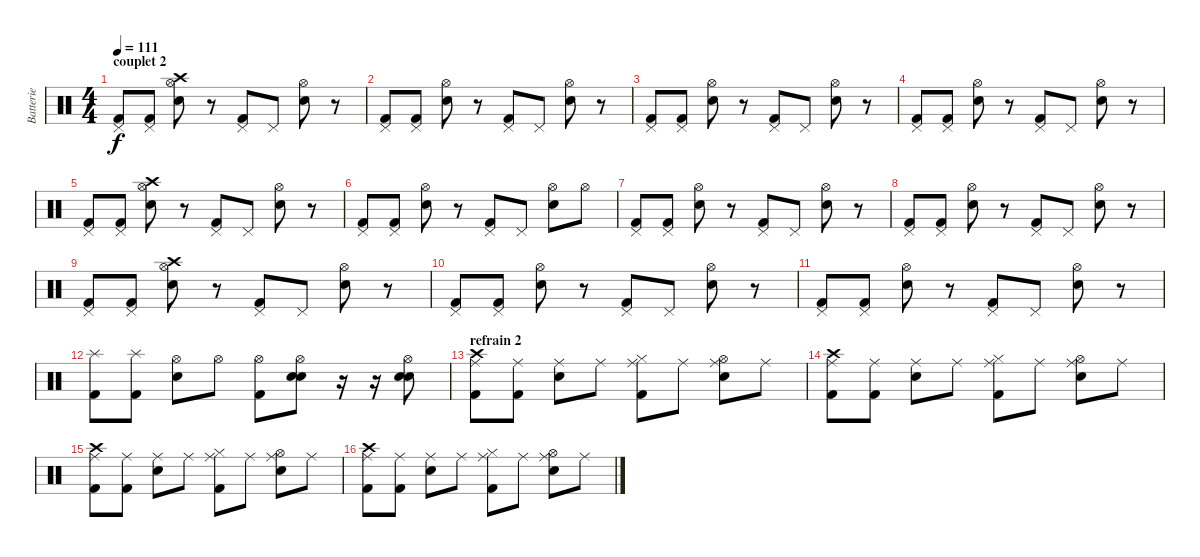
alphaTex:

\track ("Batterie" "Batterie") {instrument percussion}
\staff {score}
\articulation defaults
\ts (4 4)
\section ("" "couplet 2")
\tempo 111
\clef neutral
\ks c
("Pedal Hi-Hat (hit)" "Kick (hit) 2").8{dy f} ("Pedal Hi-Hat (hit)" "Kick (hit) 2").8 ("Hi-Hat (open)" "Crash high (hit)" "Electric Snare (hit)").8 r.8 ("Pedal Hi-Hat (hit)" "Kick (hit) 2").8 "Pedal Hi-Hat (hit)".8 ("Hi-Hat (open)" "Electric Snare (hit)").8 r.8 |
("Pedal Hi-Hat (hit)" "Kick (hit) 2").8 ("Pedal Hi-Hat (hit)" "Kick (hit) 2").8 ("Hi-Hat (open)" "Electric Snare (hit)").8 r.8 ("Pedal Hi-Hat (hit)" "Kick (hit) 2").8 "Pedal Hi-Hat (hit)".8 ("Hi-Hat (open)" "Electric Snare (hit)").8 r.8 |
("Pedal Hi-Hat (hit)" "Kick (hit) 2").8 ("Pedal Hi-Hat (hit)" "Kick (hit) 2").8 ("Hi-Hat (open)" "Electric Snare (hit)").8 r.8 ("Pedal Hi-Hat (hit)" "Kick (hit) 2").8 "Pedal Hi-Hat (hit)".8 ("Hi-Hat (open)" "Electric Snare (hit)").8 r.8 |
("Pedal Hi-Hat (hit)" "Kick (hit) 2").8 ("Pedal Hi-Hat (hit)" "Kick (hit) 2").8 ("Hi-Hat (open)" "Electric Snare (hit)").8 r.8 ("Pedal Hi-Hat (hit)" "Kick (hit) 2").8 "Pedal Hi-Hat (hit)".8 ("Hi-Hat (open)" "Electric Snare (hit)").8 r.8 |
("Pedal Hi-Hat (hit)" "Kick (hit) 2").8 ("Pedal Hi-Hat (hit)" "Kick (hit) 2").8 ("Hi-Hat (open)" "Crash high (hit)" "Electric Snare (hit)").8 r.8 ("Pedal Hi-Hat (hit)" "Kick (hit) 2").8 "Pedal Hi-Hat (hit)".8 ("Hi-Hat (open)" "Electric Snare (hit)").8 r.8 |
("Pedal Hi-Hat (hit)" "Kick (hit) 2").8 ("Pedal Hi-Hat (hit)" "Kick (hit) 2").8 ("Hi-Hat (open)" "Electric Snare (hit)").8 r.8 ("Pedal Hi-Hat (hit)" "Kick (hit) 2").8 "Pedal Hi-Hat (hit)".8 ("Hi-Hat (open)" "Electric Snare (hit)").8 "Hi-Hat (open)".8 |
("Pedal Hi-Hat (hit)" "Kick (hit) 2").8 ("Pedal Hi-Hat (hit)" "Kick (hit) 2").8 ("Hi-Hat (open)" "Electric Snare (hit)").8 r.8 ("Pedal Hi-Hat (hit)" "Kick (hit) 2").8 "Pedal Hi-Hat (hit)".8 ("Hi-Hat (open)" "Electric Snare (hit)").8 r.8 |
("Pedal Hi-Hat (hit)" "Kick (hit) 2").8 ("Pedal Hi-Hat (hit)" "Kick (hit) 2").8 ("Hi-Hat (open)" "Electric Snare (hit)").8 r.8 ("Pedal Hi-Hat (hit)" "Kick (hit) 2").8 "Pedal Hi-Hat (hit)".8 ("Hi-Hat (open)" "Electric Snare (hit)").8 r.8 |
("Pedal Hi-Hat (hit)" "Kick (hit) 2").8 ("Pedal Hi-Hat (hit)" "Kick (hit) 2").8 ("Hi-Hat (open)" "Crash high (hit)" "Electric Snare (hit)").8 r.8 ("Pedal Hi-Hat (hit)" "Kick (hit) 2").8 "Pedal Hi-Hat (hit)".8 ("Hi-Hat (open)" "Electric Snare (hit)").8 r.8 |
("Pedal Hi-Hat (hit)" "Kick (hit) 2").8 ("Pedal Hi-Hat (hit)" "Kick (hit) 2").8 ("Hi-Hat (open)" "Electric Snare (hit)").8 r.8 ("Pedal Hi-Hat (hit)" "Kick (hit) 2").8 "Pedal Hi-Hat (hit)".8 ("Hi-Hat (open)" "Electric Snare (hit)").8 r.8 |
("Pedal Hi-Hat (hit)" "Kick (hit) 2").8 ("Pedal Hi-Hat (hit)" "Kick (hit) 2").8 ("Hi-Hat (open)" "Electric Snare (hit)").8 r.8 ("Pedal Hi-Hat (hit)" "Kick (hit) 2").8 "Pedal Hi-Hat (hit)".8 ("Hi-Hat (open)" "Electric Snare (hit)").8 r.8 |
("Splash (hit)" "Kick (hit) 2").8 ("Splash (hit)" "Kick (hit) 2").8 ("Hi-Hat (open)" "Electric Snare (hit)").8 "Hi-Hat (open)".8 ("Hi-Hat (open)" "Kick (hit) 2").8 ("Hi-Hat (open)" "Electric Snare (hit)" "Electric Snare (hit)").8 r.16 r.16 ("Hi-Hat (open)" "Electric Snare (hit)" "Electric Snare (hit)").8 |
\section ("" "refrain 2")
("Ride (middle)" "Crash high (hit)" "Kick (hit) 2").8 ("Ride (middle)" "Kick (hit) 2").8 ("Ride (middle)" "Electric Snare (hit)").8 "Ride (middle)".8 ("Ride (middle)" "Hi-Hat (closed)" "Kick (hit) 2").8 "Ride (middle)".8 ("Ride (middle)" "Hi-Hat (open)" "Electric Snare (hit)").8 "Ride (middle)".8 |
("Ride (middle)" "Crash high (hit)" "Kick (hit) 2").8 ("Ride (middle)" "Kick (hit) 2").8 ("Ride (middle)" "Electric Snare (hit)").8 "Ride (middle)".8 ("Ride (middle)" "Hi-Hat (closed)" "Kick (hit) 2").8 "Ride (middle)".8 ("Ride (middle)" "Hi-Hat (open)" "Electric Snare (hit)").8 "Ride (middle)".8 |
("Ride (middle)" "Crash high (hit)" "Kick (hit) 2").8 ("Ride (middle)" "Kick (hit) 2").8 ("Ride (middle)" "Electric Snare (hit)").8 "Ride (middle)".8 ("Ride (middle)" "Hi-Hat (closed)" "Kick (hit) 2").8 "Ride (middle)".8 ("Ride (middle)" "Hi-Hat (open)" "Electric Snare (hit)").8 "Ride (middle)".8 |
("Ride (middle)" "Crash high (hit)" "Kick (hit) 2").8 ("Ride (middle)" "Kick (hit) 2").8 ("Ride (middle)" "Electric Snare (hit)").8 "Ride (middle)".8 ("Ride (middle)" "Hi-Hat (closed)" "Kick (hit) 2").8 "Ride (middle)".8 ("Ride (middle)" "Hi-Hat (open)" "Electric Snare (hit)").8 "Ride (middle)".8
